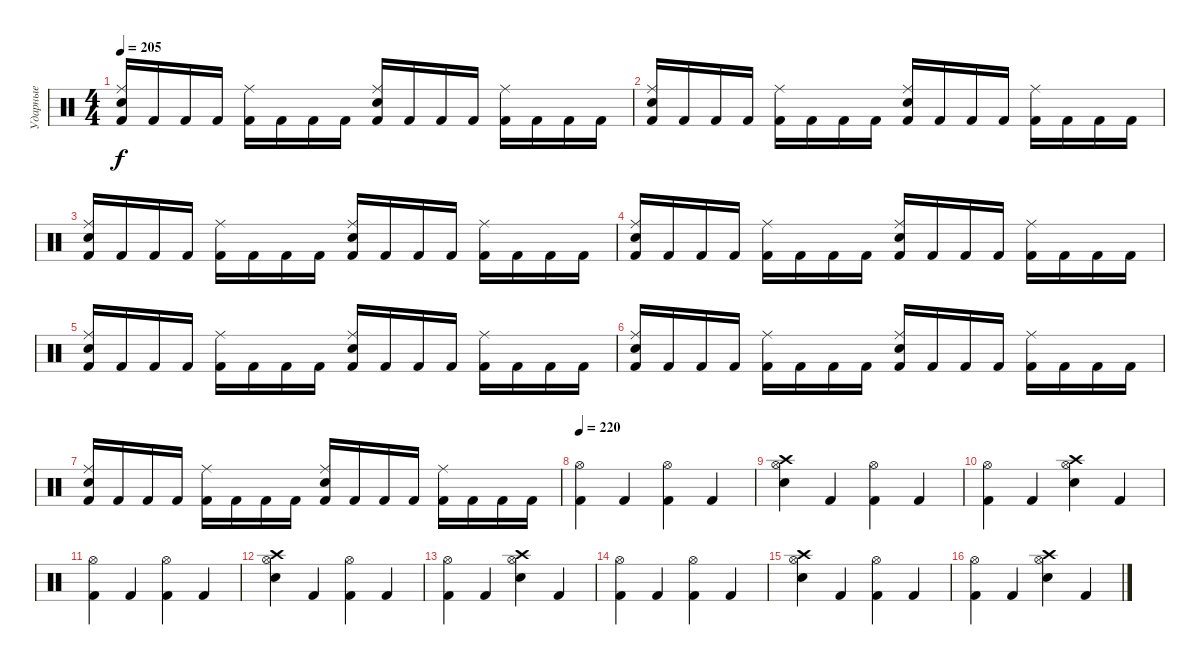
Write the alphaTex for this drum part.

\track ("Ударные" "Ударные") {instrument percussion}
\staff {score}
\articulation defaults
\ts (4 4)
\tempo 205
\clef neutral
\ks c
("Electric Snare (hit)" "Ride (middle)" "Kick (hit) 2").16{dy f} "Kick (hit) 2".16 "Kick (hit) 2".16 "Kick (hit) 2".16 ("Kick (hit) 2" "Ride (middle)").16 "Kick (hit) 2".16 "Kick (hit) 2".16 "Kick (hit) 2".16 ("Electric Snare (hit)" "Ride (middle)" "Kick (hit) 2").16 "Kick (hit) 2".16 "Kick (hit) 2".16 "Kick (hit) 2".16 ("Kick (hit) 2" "Ride (middle)").16 "Kick (hit) 2".16 "Kick (hit) 2".16 "Kick (hit) 2".16 |
("Electric Snare (hit)" "Ride (middle)" "Kick (hit) 2").16 "Kick (hit) 2".16 "Kick (hit) 2".16 "Kick (hit) 2".16 ("Kick (hit) 2" "Ride (middle)").16 "Kick (hit) 2".16 "Kick (hit) 2".16 "Kick (hit) 2".16 ("Electric Snare (hit)" "Ride (middle)" "Kick (hit) 2").16 "Kick (hit) 2".16 "Kick (hit) 2".16 "Kick (hit) 2".16 ("Kick (hit) 2" "Ride (middle)").16 "Kick (hit) 2".16 "Kick (hit) 2".16 "Kick (hit) 2".16 |
("Electric Snare (hit)" "Ride (middle)" "Kick (hit) 2").16 "Kick (hit) 2".16 "Kick (hit) 2".16 "Kick (hit) 2".16 ("Kick (hit) 2" "Ride (middle)").16 "Kick (hit) 2".16 "Kick (hit) 2".16 "Kick (hit) 2".16 ("Electric Snare (hit)" "Ride (middle)" "Kick (hit) 2").16 "Kick (hit) 2".16 "Kick (hit) 2".16 "Kick (hit) 2".16 ("Kick (hit) 2" "Ride (middle)").16 "Kick (hit) 2".16 "Kick (hit) 2".16 "Kick (hit) 2".16 |
("Electric Snare (hit)" "Ride (middle)" "Kick (hit) 2").16 "Kick (hit) 2".16 "Kick (hit) 2".16 "Kick (hit) 2".16 ("Kick (hit) 2" "Ride (middle)").16 "Kick (hit) 2".16 "Kick (hit) 2".16 "Kick (hit) 2".16 ("Electric Snare (hit)" "Ride (middle)" "Kick (hit) 2").16 "Kick (hit) 2".16 "Kick (hit) 2".16 "Kick (hit) 2".16 ("Kick (hit) 2" "Ride (middle)").16 "Kick (hit) 2".16 "Kick (hit) 2".16 "Kick (hit) 2".16 |
("Electric Snare (hit)" "Ride (middle)" "Kick (hit) 2").16 "Kick (hit) 2".16 "Kick (hit) 2".16 "Kick (hit) 2".16 ("Kick (hit) 2" "Ride (middle)").16 "Kick (hit) 2".16 "Kick (hit) 2".16 "Kick (hit) 2".16 ("Electric Snare (hit)" "Ride (middle)" "Kick (hit) 2").16 "Kick (hit) 2".16 "Kick (hit) 2".16 "Kick (hit) 2".16 ("Kick (hit) 2" "Ride (middle)").16 "Kick (hit) 2".16 "Kick (hit) 2".16 "Kick (hit) 2".16 |
("Electric Snare (hit)" "Ride (middle)" "Kick (hit) 2").16 "Kick (hit) 2".16 "Kick (hit) 2".16 "Kick (hit) 2".16 ("Kick (hit) 2" "Ride (middle)").16 "Kick (hit) 2".16 "Kick (hit) 2".16 "Kick (hit) 2".16 ("Electric Snare (hit)" "Ride (middle)" "Kick (hit) 2").16 "Kick (hit) 2".16 "Kick (hit) 2".16 "Kick (hit) 2".16 ("Kick (hit) 2" "Ride (middle)").16 "Kick (hit) 2".16 "Kick (hit) 2".16 "Kick (hit) 2".16 |
("Electric Snare (hit)" "Ride (middle)" "Kick (hit) 2").16 "Kick (hit) 2".16 "Kick (hit) 2".16 "Kick (hit) 2".16 ("Kick (hit) 2" "Ride (middle)").16 "Kick (hit) 2".16 "Kick (hit) 2".16 "Kick (hit) 2".16 ("Electric Snare (hit)" "Ride (middle)" "Kick (hit) 2").16 "Kick (hit) 2".16 "Kick (hit) 2".16 "Kick (hit) 2".16 ("Kick (hit) 2" "Ride (middle)").16 "Kick (hit) 2".16 "Kick (hit) 2".16 "Kick (hit) 2".16 |
\tempo 220
("Kick (hit) 2" "Hi-Hat (open)").4 "Kick (hit) 2".4 ("Kick (hit) 2" "Hi-Hat (open)").4 "Kick (hit) 2".4 |
("Electric Snare (hit)" "Hi-Hat (open)" "Crash high (hit)").4 "Kick (hit) 2".4 ("Kick (hit) 2" "Hi-Hat (open)").4 "Kick (hit) 2".4 |
("Kick (hit) 2" "Hi-Hat (open)").4 "Kick (hit) 2".4 ("Electric Snare (hit)" "Hi-Hat (open)" "Crash high (hit)").4 "Kick (hit) 2".4 |
("Kick (hit) 2" "Hi-Hat (open)").4 "Kick (hit) 2".4 ("Kick (hit) 2" "Hi-Hat (open)").4 "Kick (hit) 2".4 |
("Electric Snare (hit)" "Hi-Hat (open)" "Crash high (hit)").4 "Kick (hit) 2".4 ("Kick (hit) 2" "Hi-Hat (open)").4 "Kick (hit) 2".4 |
("Kick (hit) 2" "Hi-Hat (open)").4 "Kick (hit) 2".4 ("Electric Snare (hit)" "Hi-Hat (open)" "Crash high (hit)").4 "Kick (hit) 2".4 |
("Kick (hit) 2" "Hi-Hat (open)").4 "Kick (hit) 2".4 ("Kick (hit) 2" "Hi-Hat (open)").4 "Kick (hit) 2".4 |
("Electric Snare (hit)" "Hi-Hat (open)" "Crash high (hit)").4 "Kick (hit) 2".4 ("Kick (hit) 2" "Hi-Hat (open)").4 "Kick (hit) 2".4 |
("Kick (hit) 2" "Hi-Hat (open)").4 "Kick (hit) 2".4 ("Electric Snare (hit)" "Hi-Hat (open)" "Crash high (hit)").4 "Kick (hit) 2".4
